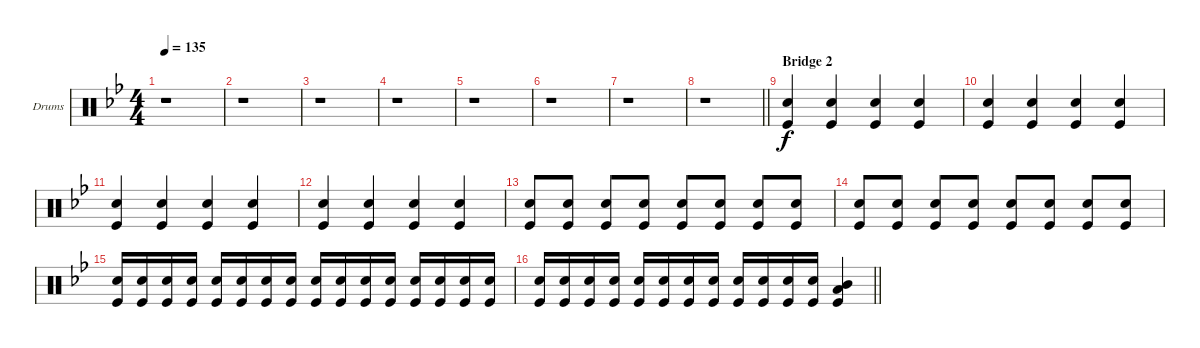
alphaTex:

\bracketExtendMode groupsimilarinstruments
\firstSystemTrackNameOrientation horizontal
\otherSystemsTrackNameOrientation horizontal
\track ("Drumkit" "Drums") {instrument percussion}
\staff {score}
\articulation defaults
\ts (4 4)
\tempo 135
\clef neutral
\ks gminor
r.1{dy f} |
r.1 |
r.1 |
r.1 |
r.1 |
r.1 |
r.1 |
\barLineRight lightlight
r.1 |
\section ("" "Bridge 2")
("Snare (hit) 2" "Kick (hit)").4 ("Snare (hit) 2" "Kick (hit)").4 ("Snare (hit) 2" "Kick (hit)").4 ("Snare (hit) 2" "Kick (hit)").4 |
("Snare (hit) 2" "Kick (hit)").4 ("Snare (hit) 2" "Kick (hit)").4 ("Snare (hit) 2" "Kick (hit)").4 ("Snare (hit) 2" "Kick (hit)").4 |
("Snare (hit) 2" "Kick (hit)").4 ("Snare (hit) 2" "Kick (hit)").4 ("Snare (hit) 2" "Kick (hit)").4 ("Snare (hit) 2" "Kick (hit)").4 |
("Snare (hit) 2" "Kick (hit)").4 ("Snare (hit) 2" "Kick (hit)").4 ("Snare (hit) 2" "Kick (hit)").4 ("Snare (hit) 2" "Kick (hit)").4 |
("Snare (hit) 2" "Kick (hit)").8 ("Snare (hit) 2" "Kick (hit)").8 ("Snare (hit) 2" "Kick (hit)").8 ("Snare (hit) 2" "Kick (hit)").8 ("Snare (hit) 2" "Kick (hit)").8 ("Snare (hit) 2" "Kick (hit)").8 ("Snare (hit) 2" "Kick (hit)").8 ("Snare (hit) 2" "Kick (hit)").8 |
("Snare (hit) 2" "Kick (hit)").8 ("Snare (hit) 2" "Kick (hit)").8 ("Snare (hit) 2" "Kick (hit)").8 ("Snare (hit) 2" "Kick (hit)").8 ("Snare (hit) 2" "Kick (hit)").8 ("Snare (hit) 2" "Kick (hit)").8 ("Snare (hit) 2" "Kick (hit)").8 ("Snare (hit) 2" "Kick (hit)").8 |
("Snare (hit) 2" "Kick (hit)").16 ("Snare (hit) 2" "Kick (hit)").16 ("Snare (hit) 2" "Kick (hit)").16 ("Snare (hit) 2" "Kick (hit)").16 ("Snare (hit) 2" "Kick (hit)").16 ("Snare (hit) 2" "Kick (hit)").16 ("Snare (hit) 2" "Kick (hit)").16 ("Snare (hit) 2" "Kick (hit)").16 ("Snare (hit) 2" "Kick (hit)").16 ("Snare (hit) 2" "Kick (hit)").16 ("Snare (hit) 2" "Kick (hit)").16 ("Snare (hit) 2" "Kick (hit)").16 ("Snare (hit) 2" "Kick (hit)").16 ("Snare (hit) 2" "Kick (hit)").16 ("Snare (hit) 2" "Kick (hit)").16 ("Snare (hit) 2" "Kick (hit)").16 |
\barLineRight lightlight
("Snare (hit) 2" "Kick (hit)").16 ("Snare (hit) 2" "Kick (hit)").16 ("Snare (hit) 2" "Kick (hit)").16 ("Snare (hit) 2" "Kick (hit)").16 ("Snare (hit) 2" "Kick (hit)").16 ("Snare (hit) 2" "Kick (hit)").16 ("Snare (hit) 2" "Kick (hit)").16 ("Snare (hit) 2" "Kick (hit)").16 ("Snare (hit) 2" "Kick (hit)").16 ("Snare (hit) 2" "Kick (hit)").16 ("Snare (hit) 2" "Kick (hit)").16 ("Snare (hit) 2" "Kick (hit)").16 ("Low Tom (hit)" "Mid Tom (hit)" "Kick (hit)").4
